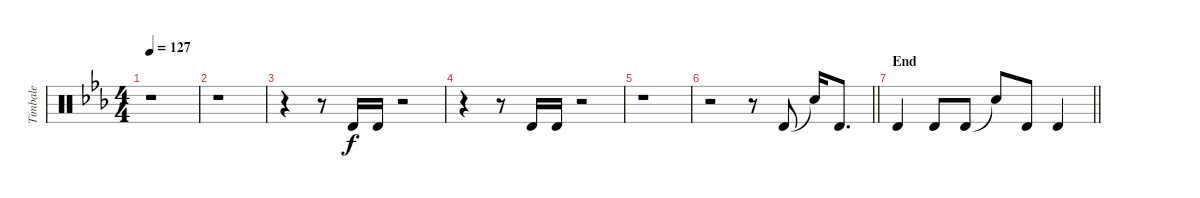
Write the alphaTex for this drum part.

\track ("Timbale" "Timbale") {instrument percussion}
\staff {score}
\articulation defaults
\ts (4 4)
\tempo 127
\clef neutral
\ks eb
r.1{dy f} |
r.1 |
r.4 r.8 "Timbale high (hit)".16 "Timbale high (hit)".16 r.2 |
r.4 r.8 "Timbale high (hit)".16 "Timbale high (hit)".16 r.2 |
r.1 |
\barLineRight lightlight
r.2 r.8 "Timbale high (hit)".8 "Snare (hit)"{t}.16 "Timbale high (hit)".8{d} |
\section ("" "End")
\barLineRight lightlight "Timbale high (hit)".4 "Timbale high (hit)".8 "Timbale high (hit)".8 "Snare (hit)"{t}.8 "Timbale high (hit)".8 "Timbale high (hit)".4
